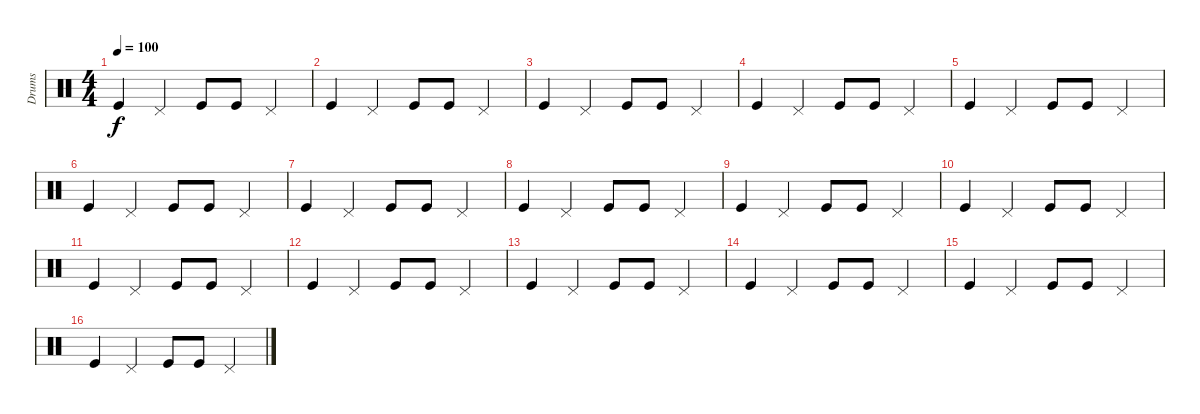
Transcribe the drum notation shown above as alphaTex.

\track ("Drums" "Drums") {instrument percussion}
\staff {score}
\articulation defaults
\ts (4 4)
\tempo 100
\clef neutral
\ks c "Kick (hit)".4{dy f} "Pedal Hi-Hat (hit)".4 "Kick (hit)".8 "Kick (hit)".8 "Pedal Hi-Hat (hit)".4
|
"Kick (hit)".4 "Pedal Hi-Hat (hit)".4 "Kick (hit)".8 "Kick (hit)".8 "Pedal Hi-Hat (hit)".4 |
"Kick (hit)".4 "Pedal Hi-Hat (hit)".4 "Kick (hit)".8 "Kick (hit)".8 "Pedal Hi-Hat (hit)".4 |
"Kick (hit)".4 "Pedal Hi-Hat (hit)".4 "Kick (hit)".8 "Kick (hit)".8 "Pedal Hi-Hat (hit)".4 |
"Kick (hit)".4 "Pedal Hi-Hat (hit)".4 "Kick (hit)".8 "Kick (hit)".8 "Pedal Hi-Hat (hit)".4 |
"Kick (hit)".4 "Pedal Hi-Hat (hit)".4 "Kick (hit)".8 "Kick (hit)".8 "Pedal Hi-Hat (hit)".4 |
"Kick (hit)".4 "Pedal Hi-Hat (hit)".4 "Kick (hit)".8 "Kick (hit)".8 "Pedal Hi-Hat (hit)".4 |
"Kick (hit)".4 "Pedal Hi-Hat (hit)".4 "Kick (hit)".8 "Kick (hit)".8 "Pedal Hi-Hat (hit)".4 |
"Kick (hit)".4 "Pedal Hi-Hat (hit)".4 "Kick (hit)".8 "Kick (hit)".8 "Pedal Hi-Hat (hit)".4 |
"Kick (hit)".4 "Pedal Hi-Hat (hit)".4 "Kick (hit)".8 "Kick (hit)".8 "Pedal Hi-Hat (hit)".4 |
"Kick (hit)".4 "Pedal Hi-Hat (hit)".4 "Kick (hit)".8 "Kick (hit)".8 "Pedal Hi-Hat (hit)".4 |
"Kick (hit)".4 "Pedal Hi-Hat (hit)".4 "Kick (hit)".8 "Kick (hit)".8 "Pedal Hi-Hat (hit)".4 |
"Kick (hit)".4 "Pedal Hi-Hat (hit)".4 "Kick (hit)".8 "Kick (hit)".8 "Pedal Hi-Hat (hit)".4 |
"Kick (hit)".4 "Pedal Hi-Hat (hit)".4 "Kick (hit)".8 "Kick (hit)".8 "Pedal Hi-Hat (hit)".4 |
"Kick (hit)".4 "Pedal Hi-Hat (hit)".4 "Kick (hit)".8 "Kick (hit)".8 "Pedal Hi-Hat (hit)".4 |
"Kick (hit)".4 "Pedal Hi-Hat (hit)".4 "Kick (hit)".8 "Kick (hit)".8 "Pedal Hi-Hat (hit)".4
